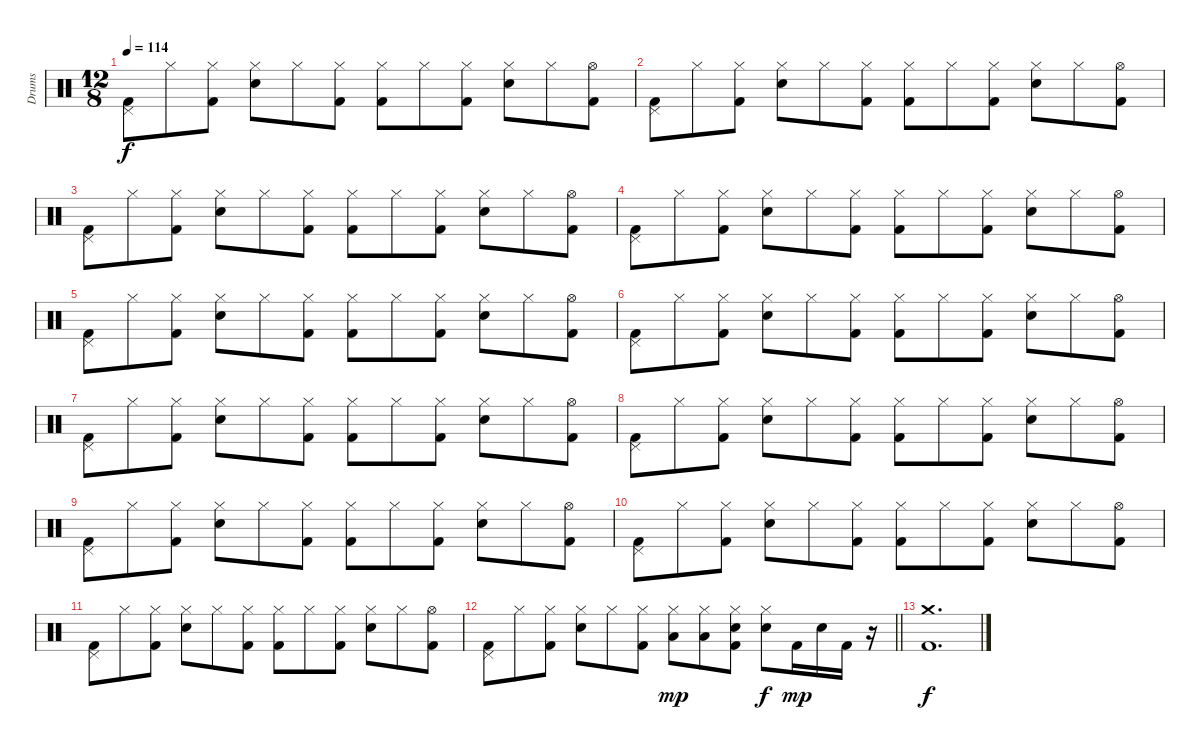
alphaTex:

\track ("Drums" "Drums") {instrument percussion}
\staff {score}
\articulation defaults
\ts (12 8)
\tempo 114
\clef neutral
\ks c
("Pedal Hi-Hat (hit)" "Kick (hit) 2").8{dy f} "Hi-Hat (closed)".8 ("Hi-Hat (closed)" "Kick (hit) 2").8 ("Hi-Hat (closed)" "Snare (hit) 2").8 "Hi-Hat (closed)".8 ("Hi-Hat (closed)" "Kick (hit) 2").8 ("Hi-Hat (closed)" "Kick (hit) 2").8 "Hi-Hat (closed)".8 ("Hi-Hat (closed)" "Kick (hit) 2").8 ("Hi-Hat (closed)" "Snare (hit) 2").8 "Hi-Hat (closed)".8 ("Hi-Hat (open)" "Kick (hit) 2").8 |
("Pedal Hi-Hat (hit)" "Kick (hit) 2").8 "Hi-Hat (closed)".8 ("Hi-Hat (closed)" "Kick (hit) 2").8 ("Hi-Hat (closed)" "Snare (hit) 2").8 "Hi-Hat (closed)".8 ("Hi-Hat (closed)" "Kick (hit) 2").8 ("Hi-Hat (closed)" "Kick (hit) 2").8 "Hi-Hat (closed)".8 ("Hi-Hat (closed)" "Kick (hit) 2").8 ("Hi-Hat (closed)" "Snare (hit) 2").8 "Hi-Hat (closed)".8 ("Hi-Hat (open)" "Kick (hit) 2").8 |
("Pedal Hi-Hat (hit)" "Kick (hit) 2").8 "Hi-Hat (closed)".8 ("Hi-Hat (closed)" "Kick (hit) 2").8 ("Hi-Hat (closed)" "Snare (hit) 2").8 "Hi-Hat (closed)".8 ("Hi-Hat (closed)" "Kick (hit) 2").8 ("Hi-Hat (closed)" "Kick (hit) 2").8 "Hi-Hat (closed)".8 ("Hi-Hat (closed)" "Kick (hit) 2").8 ("Hi-Hat (closed)" "Snare (hit) 2").8 "Hi-Hat (closed)".8 ("Hi-Hat (open)" "Kick (hit) 2").8 |
("Pedal Hi-Hat (hit)" "Kick (hit) 2").8 "Hi-Hat (closed)".8 ("Hi-Hat (closed)" "Kick (hit) 2").8 ("Hi-Hat (closed)" "Snare (hit) 2").8 "Hi-Hat (closed)".8 ("Hi-Hat (closed)" "Kick (hit) 2").8 ("Hi-Hat (closed)" "Kick (hit) 2").8 "Hi-Hat (closed)".8 ("Hi-Hat (closed)" "Kick (hit) 2").8 ("Hi-Hat (closed)" "Snare (hit) 2").8 "Hi-Hat (closed)".8 ("Hi-Hat (open)" "Kick (hit) 2").8 |
("Pedal Hi-Hat (hit)" "Kick (hit) 2").8 "Hi-Hat (closed)".8 ("Hi-Hat (closed)" "Kick (hit) 2").8 ("Hi-Hat (closed)" "Snare (hit) 2").8 "Hi-Hat (closed)".8 ("Hi-Hat (closed)" "Kick (hit) 2").8 ("Hi-Hat (closed)" "Kick (hit) 2").8 "Hi-Hat (closed)".8 ("Hi-Hat (closed)" "Kick (hit) 2").8 ("Hi-Hat (closed)" "Snare (hit) 2").8 "Hi-Hat (closed)".8 ("Hi-Hat (open)" "Kick (hit) 2").8 |
("Pedal Hi-Hat (hit)" "Kick (hit) 2").8 "Hi-Hat (closed)".8 ("Hi-Hat (closed)" "Kick (hit) 2").8 ("Hi-Hat (closed)" "Snare (hit) 2").8 "Hi-Hat (closed)".8 ("Hi-Hat (closed)" "Kick (hit) 2").8 ("Hi-Hat (closed)" "Kick (hit) 2").8 "Hi-Hat (closed)".8 ("Hi-Hat (closed)" "Kick (hit) 2").8 ("Hi-Hat (closed)" "Snare (hit) 2").8 "Hi-Hat (closed)".8 ("Hi-Hat (open)" "Kick (hit) 2").8 |
("Pedal Hi-Hat (hit)" "Kick (hit) 2").8 "Hi-Hat (closed)".8 ("Hi-Hat (closed)" "Kick (hit) 2").8 ("Hi-Hat (closed)" "Snare (hit) 2").8 "Hi-Hat (closed)".8 ("Hi-Hat (closed)" "Kick (hit) 2").8 ("Hi-Hat (closed)" "Kick (hit) 2").8 "Hi-Hat (closed)".8 ("Hi-Hat (closed)" "Kick (hit) 2").8 ("Hi-Hat (closed)" "Snare (hit) 2").8 "Hi-Hat (closed)".8 ("Hi-Hat (open)" "Kick (hit) 2").8 |
("Pedal Hi-Hat (hit)" "Kick (hit) 2").8 "Hi-Hat (closed)".8 ("Hi-Hat (closed)" "Kick (hit) 2").8 ("Hi-Hat (closed)" "Snare (hit) 2").8 "Hi-Hat (closed)".8 ("Hi-Hat (closed)" "Kick (hit) 2").8 ("Hi-Hat (closed)" "Kick (hit) 2").8 "Hi-Hat (closed)".8 ("Hi-Hat (closed)" "Kick (hit) 2").8 ("Hi-Hat (closed)" "Snare (hit) 2").8 "Hi-Hat (closed)".8 ("Hi-Hat (open)" "Kick (hit) 2").8 |
("Pedal Hi-Hat (hit)" "Kick (hit) 2").8 "Hi-Hat (closed)".8 ("Hi-Hat (closed)" "Kick (hit) 2").8 ("Hi-Hat (closed)" "Snare (hit) 2").8 "Hi-Hat (closed)".8 ("Hi-Hat (closed)" "Kick (hit) 2").8 ("Hi-Hat (closed)" "Kick (hit) 2").8 "Hi-Hat (closed)".8 ("Hi-Hat (closed)" "Kick (hit) 2").8 ("Hi-Hat (closed)" "Snare (hit) 2").8 "Hi-Hat (closed)".8 ("Hi-Hat (open)" "Kick (hit) 2").8 |
("Pedal Hi-Hat (hit)" "Kick (hit) 2").8 "Hi-Hat (closed)".8 ("Hi-Hat (closed)" "Kick (hit) 2").8 ("Hi-Hat (closed)" "Snare (hit) 2").8 "Hi-Hat (closed)".8 ("Hi-Hat (closed)" "Kick (hit) 2").8 ("Hi-Hat (closed)" "Kick (hit) 2").8 "Hi-Hat (closed)".8 ("Hi-Hat (closed)" "Kick (hit) 2").8 ("Hi-Hat (closed)" "Snare (hit) 2").8 "Hi-Hat (closed)".8 ("Hi-Hat (open)" "Kick (hit) 2").8 |
("Pedal Hi-Hat (hit)" "Kick (hit) 2").8 "Hi-Hat (closed)".8 ("Hi-Hat (closed)" "Kick (hit) 2").8 ("Hi-Hat (closed)" "Snare (hit) 2").8 "Hi-Hat (closed)".8 ("Hi-Hat (closed)" "Kick (hit) 2").8 ("Hi-Hat (closed)" "Kick (hit) 2").8 "Hi-Hat (closed)".8 ("Hi-Hat (closed)" "Kick (hit) 2").8 ("Hi-Hat (closed)" "Snare (hit) 2").8 "Hi-Hat (closed)".8 ("Hi-Hat (open)" "Kick (hit) 2").8 |
\barLineRight lightlight
("Pedal Hi-Hat (hit)" "Kick (hit) 2").8 "Hi-Hat (closed)".8 ("Hi-Hat (closed)" "Kick (hit) 2").8 ("Hi-Hat (closed)" "Snare (hit) 2").8 "Hi-Hat (closed)".8 ("Hi-Hat (closed)" "Kick (hit) 2").8 ("Hi-Hat (closed)" "Low Tom (hit)").8{dy mp} ("Hi-Hat (closed)" "Low Tom (hit)").8 ("Hi-Hat (closed)" "Snare (hit) 2" "Kick (hit) 2").8 ("Hi-Hat (closed)" "Snare (hit) 2").8{dy f} "Kick (hit) 2".16{dy mp} "Snare (hit) 2".16 "Kick (hit) 2".16 r.16 |
("Crash medium (hit)" "Kick (hit) 2").1{d dy f}
